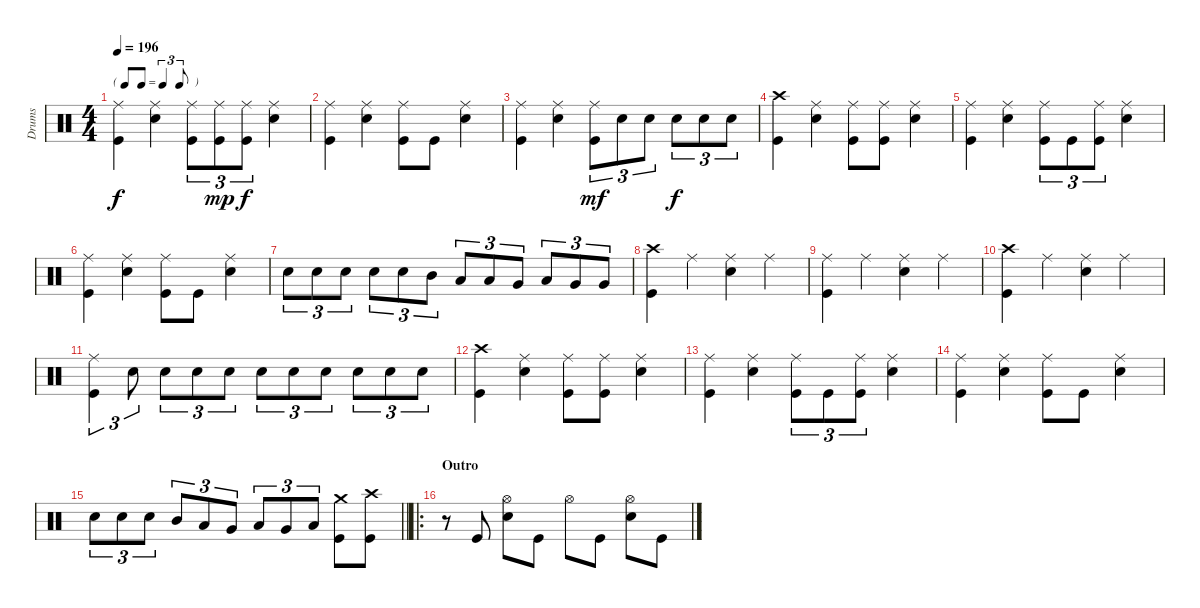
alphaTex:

\track ("Drums" "Drums") {instrument percussion}
\staff {score}
\articulation defaults
\ts (4 4)
\tf triplet8th
\tempo 196
\clef neutral
\ks c
("Ride (middle)" "Kick (hit)").4{dy f} ("Ride (middle)" "Snare (hit) 2").4 ("Ride (middle)" "Kick (hit)").8{tu (3 2)} ("Ride (middle)" "Kick (hit)").8{tu (3 2) dy mp} ("Ride (middle)" "Kick (hit)").8{tu (3 2) dy f} ("Ride (middle)" "Snare (hit) 2").4 |
("Ride (middle)" "Kick (hit)").4 ("Ride (middle)" "Snare (hit) 2").4 ("Ride (middle)" "Kick (hit)").8 "Kick (hit)".8 ("Ride (middle)" "Snare (hit) 2").4 |
("Ride (middle)" "Kick (hit)").4 ("Ride (middle)" "Snare (hit) 2").4 ("Ride (middle)" "Kick (hit)").8{tu (3 2) dy mf} "Snare (hit) 2".8{tu (3 2)} "Snare (hit) 2".8{tu (3 2)} "Snare (hit) 2".8{tu (3 2) dy f} "Snare (hit) 2".8{tu (3 2)} "Snare (hit) 2".8{tu (3 2)} |
("Crash high (hit)" "Kick (hit)").4 ("Ride (middle)" "Snare (hit) 2").4 ("Ride (middle)" "Kick (hit)").8 ("Ride (middle)" "Kick (hit)").8 ("Ride (middle)" "Snare (hit) 2").4 |
("Ride (middle)" "Kick (hit)").4 ("Ride (middle)" "Snare (hit) 2").4 ("Ride (middle)" "Kick (hit)").8{tu (3 2)} "Kick (hit)".8{tu (3 2)} ("Ride (middle)" "Kick (hit)").8{tu (3 2)} ("Ride (middle)" "Snare (hit) 2").4 |
("Ride (middle)" "Kick (hit)").4 ("Ride (middle)" "Snare (hit) 2").4 ("Ride (middle)" "Kick (hit)").8 "Kick (hit)".8 ("Ride (middle)" "Snare (hit) 2").4 |
"Snare (hit) 2".8{tu (3 2)} "Snare (hit) 2".8{tu (3 2)} "Snare (hit) 2".8{tu (3 2)} "Snare (hit) 2".8{tu (3 2)} "Snare (hit) 2".8{tu (3 2)} "Mid Tom (hit)".8{tu (3 2)} "Low Tom (hit)".8{tu (3 2)} "Low Tom (hit)".8{tu (3 2)} "Very Low Tom (hit)".8{tu (3 2)} "Low Tom (hit)".8{tu (3 2)} "Very Low Tom (hit)".8{tu (3 2)} "Very Low Tom (hit)".8{tu (3 2)} |
("Crash high (hit)" "Kick (hit)").4 "Ride (middle)".4 ("Ride (middle)" "Snare (hit) 2").4 "Ride (middle)".4 |
("Ride (middle)" "Kick (hit)").4 "Ride (middle)".4 ("Ride (middle)" "Snare (hit) 2").4 "Ride (middle)".4 |
("Crash high (hit)" "Kick (hit)").4 "Ride (middle)".4 ("Ride (middle)" "Snare (hit) 2").4 "Ride (middle)".4 |
("Ride (middle)" "Kick (hit)").4{tu (3 2)} "Snare (hit) 2".8{tu (3 2)} "Snare (hit) 2".8{tu (3 2)} "Snare (hit) 2".8{tu (3 2)} "Snare (hit) 2".8{tu (3 2)} "Snare (hit) 2".8{tu (3 2)} "Snare (hit) 2".8{tu (3 2)} "Snare (hit) 2".8{tu (3 2)} "Snare (hit) 2".8{tu (3 2)} "Snare (hit) 2".8{tu (3 2)} "Snare (hit) 2".8{tu (3 2)} |
("Crash high (hit)" "Kick (hit)").4 ("Ride (middle)" "Snare (hit) 2").4 ("Ride (middle)" "Kick (hit)").8 ("Ride (middle)" "Kick (hit)").8 ("Ride (middle)" "Snare (hit) 2").4 |
("Ride (middle)" "Kick (hit)").4 ("Ride (middle)" "Snare (hit) 2").4 ("Ride (middle)" "Kick (hit)").8{tu (3 2)} "Kick (hit)".8{tu (3 2)} ("Ride (middle)" "Kick (hit)").8{tu (3 2)} ("Ride (middle)" "Snare (hit) 2").4 |
("Ride (middle)" "Kick (hit)").4 ("Ride (middle)" "Snare (hit) 2").4 ("Ride (middle)" "Kick (hit)").8 "Kick (hit)".8 ("Ride (middle)" "Snare (hit) 2").4 |
\barLineRight lightlight "Snare (hit) 2".8{tu (3 2)} "Snare (hit) 2".8{tu (3 2)} "Snare (hit) 2".8{tu (3 2)} "Mid Tom (hit)".8{tu (3 2)} "Low Tom (hit)".8{tu (3 2)} "Very Low Tom (hit)".8{tu (3 2)} "Low Tom (hit)".8{tu (3 2)} "Very Low Tom (hit)".8{tu (3 2)} "Low Floor Tom (hit)".8{tu (3 2)}
("Crash medium (hit)" "Kick (hit)").8 ("Crash high (hit)" "Kick (hit)").8 |
\ro
\section ("" "Outro")
r.8 "Kick (hit)".8 ("Hi-Hat (open)" "Snare (hit) 2").8 "Kick (hit)".8 "Hi-Hat (open)".8 "Kick (hit)".8 ("Hi-Hat (open)" "Snare (hit) 2").8 "Kick (hit)".8
